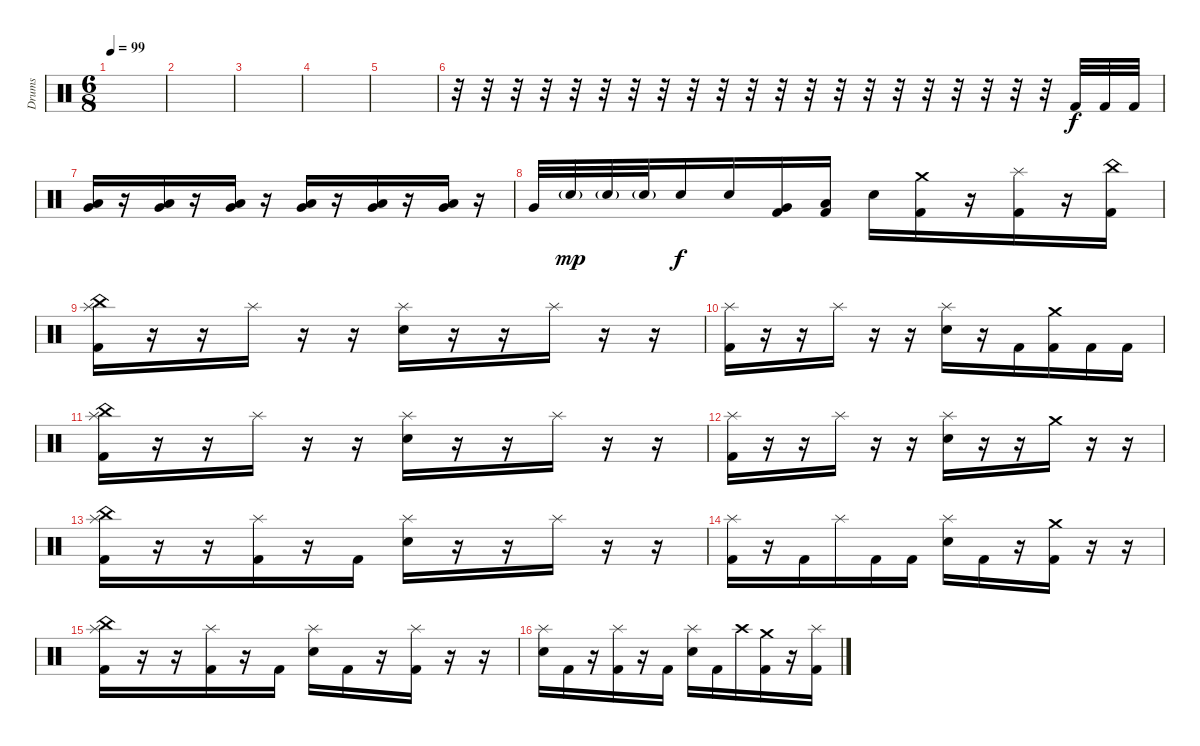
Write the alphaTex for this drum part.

\track ("Drums" "Drums") {instrument percussion}
\staff {score}
\articulation defaults
\ts (6 8)
\tempo 99
\clef neutral
\ks c
|
|
|
|
|
r.32 r.32 r.32 r.32 r.32 r.32 r.32 r.32 r.32 r.32 r.32 r.32 r.32 r.32 r.32 r.32 r.32 r.32 r.32 r.32 r.32 "Kick (hit) 2".32 "Kick (hit) 2".32 "Kick (hit) 2".32 |
("Very Low Tom (hit)" "Low Floor Tom (hit)").16 r.16 ("Very Low Tom (hit)" "Low Floor Tom (hit)").16 r.16 ("Very Low Tom (hit)" "Low Floor Tom (hit)").16 r.16 ("Very Low Tom (hit)" "Low Floor Tom (hit)").16 r.16 ("Very Low Tom (hit)" "Low Floor Tom (hit)").16 r.16 ("Very Low Tom (hit)" "Low Floor Tom (hit)").16 r.16 |
"Very Low Tom (hit)".32 "Electric Snare (hit)"{g}.32{dy mp} "Electric Snare (hit)"{g}.32 "Electric Snare (hit)"{g}.32 "Electric Snare (hit)".16{dy f} "Electric Snare (hit)".16 ("Very Low Tom (hit)" "Kick (hit) 2").16 ("Low Tom (hit)" "Kick (hit) 2").16 "Electric Snare (hit)".16 ("Crash medium (hit)" "Kick (hit) 2").16 r.16 ("Splash (hit)" "Kick (hit) 2").16 r.16 ("China (hit)" "Kick (hit) 2").16 |
("China (hit)" "Splash (hit)" "Kick (hit) 2").16 r.16 r.16 "Splash (hit)".16 r.16 r.16 ("Splash (hit)" "Electric Snare (hit)").16 r.16 r.16 "Splash (hit)".16 r.16 r.16 |
("Splash (hit)" "Kick (hit) 2").16 r.16 r.16 "Splash (hit)".16 r.16 r.16 ("Splash (hit)" "Electric Snare (hit)").16 r.16 "Kick (hit) 2".16 ("Crash medium (hit)" "Kick (hit) 2").16 "Kick (hit) 2".16 "Kick (hit) 2".16 |
("China (hit)" "Splash (hit)" "Kick (hit) 2").16 r.16 r.16 "Splash (hit)".16 r.16 r.16 ("Splash (hit)" "Electric Snare (hit)").16 r.16 r.16 "Splash (hit)".16 r.16 r.16 |
("Splash (hit)" "Kick (hit) 2").16 r.16 r.16 "Splash (hit)".16 r.16 r.16 ("Splash (hit)" "Electric Snare (hit)").16 r.16 r.16 "Crash medium (hit)".16 r.16 r.16 |
("Splash (hit)" "China (hit)" "Kick (hit) 2").16 r.16 r.16 ("Splash (hit)" "Kick (hit) 2").16 r.16 "Kick (hit) 2".16 ("Splash (hit)" "Electric Snare (hit)").16 r.16 r.16 "Splash (hit)".16 r.16 r.16 |
("Splash (hit)" "Kick (hit) 2").16 r.16 "Kick (hit) 2".16 "Splash (hit)".16 "Kick (hit) 2".16 "Kick (hit) 2".16 ("Splash (hit)" "Electric Snare (hit)").16 "Kick (hit) 2".16 r.16 ("Crash medium (hit)" "Kick (hit) 2").16 r.16 r.16 |
("Splash (hit)" "China (hit)" "Kick (hit) 2").16 r.16 r.16 ("Splash (hit)" "Kick (hit) 2").16 r.16 "Kick (hit) 2".16 ("Splash (hit)" "Electric Snare (hit)").16 "Kick (hit) 2".16 r.16 ("Splash (hit)" "Kick (hit) 2").16 r.16 r.16 |
("Splash (hit)" "Electric Snare (hit)").16 "Kick (hit) 2".16 r.16 ("Splash (hit)" "Kick (hit) 2").16 r.16 "Kick (hit) 2".16 ("Splash (hit)" "Electric Snare (hit)").16 "Kick (hit) 2".16 "Crash high (hit)".16 ("Crash medium (hit)" "Kick (hit) 2").16 r.16 ("Splash (hit)" "Kick (hit) 2").16
